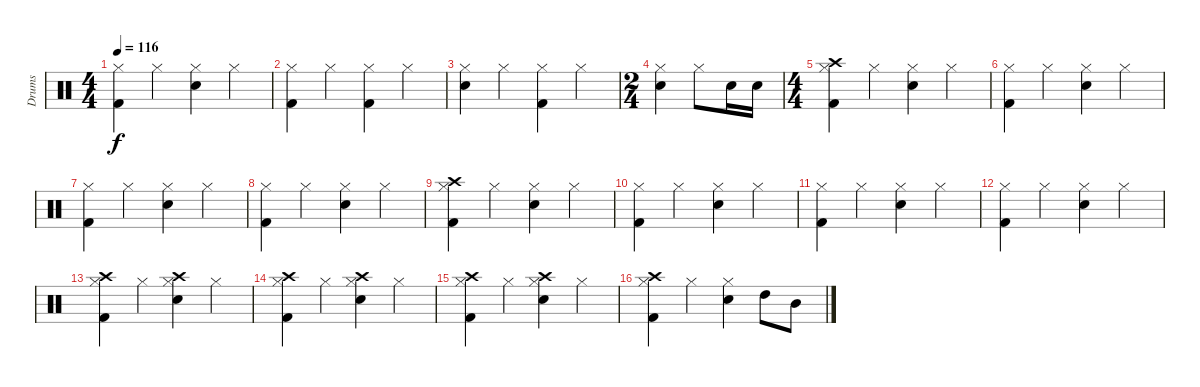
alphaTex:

\track ("Drums" "Drums") {instrument percussion}
\staff {score}
\articulation defaults
\ts (4 4)
\tempo 116
\clef neutral
\ks c
("Hi-Hat (closed)" "Kick (hit) 2").4{dy f} "Hi-Hat (closed)".4 ("Hi-Hat (closed)" "Snare (hit) 2").4 "Hi-Hat (closed)".4 |
("Hi-Hat (closed)" "Kick (hit) 2").4 "Hi-Hat (closed)".4 ("Hi-Hat (closed)" "Kick (hit) 2").4 "Hi-Hat (closed)".4 |
("Hi-Hat (closed)" "Snare (hit) 2").4 "Hi-Hat (closed)".4 ("Hi-Hat (closed)" "Kick (hit) 2").4 "Hi-Hat (closed)".4 |
\ts (2 4)
("Hi-Hat (closed)" "Snare (hit) 2").4 "Hi-Hat (closed)".8 "Snare (hit) 2".16 "Snare (hit) 2".16 |
\ts (4 4)
("Crash high (hit)" "Hi-Hat (closed)" "Kick (hit) 2").4 "Hi-Hat (closed)".4 ("Hi-Hat (closed)" "Snare (hit) 2").4 "Hi-Hat (closed)".4 |
("Hi-Hat (closed)" "Kick (hit) 2").4 "Hi-Hat (closed)".4 ("Hi-Hat (closed)" "Snare (hit) 2").4 "Hi-Hat (closed)".4 |
("Hi-Hat (closed)" "Kick (hit) 2").4 "Hi-Hat (closed)".4 ("Hi-Hat (closed)" "Snare (hit) 2").4 "Hi-Hat (closed)".4 |
("Hi-Hat (closed)" "Kick (hit) 2").4 "Hi-Hat (closed)".4 ("Hi-Hat (closed)" "Snare (hit) 2").4 "Hi-Hat (closed)".4 |
("Crash high (hit)" "Hi-Hat (closed)" "Kick (hit) 2").4 "Hi-Hat (closed)".4 ("Hi-Hat (closed)" "Snare (hit) 2").4 "Hi-Hat (closed)".4 |
("Hi-Hat (closed)" "Kick (hit) 2").4 "Hi-Hat (closed)".4 ("Hi-Hat (closed)" "Snare (hit) 2").4 "Hi-Hat (closed)".4 |
("Hi-Hat (closed)" "Kick (hit) 2").4 "Hi-Hat (closed)".4 ("Hi-Hat (closed)" "Snare (hit) 2").4 "Hi-Hat (closed)".4 |
("Hi-Hat (closed)" "Kick (hit) 2").4 "Hi-Hat (closed)".4 ("Hi-Hat (closed)" "Snare (hit) 2").4 "Hi-Hat (closed)".4 |
("Crash high (hit)" "Hi-Hat (closed)" "Kick (hit) 2").4 "Hi-Hat (closed)".4 ("Crash high (hit)" "Hi-Hat (closed)" "Snare (hit) 2").4 "Hi-Hat (closed)".4 |
("Crash high (hit)" "Hi-Hat (closed)" "Kick (hit) 2").4 "Hi-Hat (closed)".4 ("Crash high (hit)" "Hi-Hat (closed)" "Snare (hit) 2").4 "Hi-Hat (closed)".4 |
("Crash high (hit)" "Hi-Hat (closed)" "Kick (hit) 2").4 "Hi-Hat (closed)".4 ("Crash high (hit)" "Hi-Hat (closed)" "Snare (hit) 2").4 "Hi-Hat (closed)".4 |
("Crash high (hit)" "Hi-Hat (closed)" "Kick (hit) 2").4 "Hi-Hat (closed)".4 ("Hi-Hat (closed)" "Snare (hit) 2").4 "High Tom (hit)".8 "Mid Tom (hit)".8
